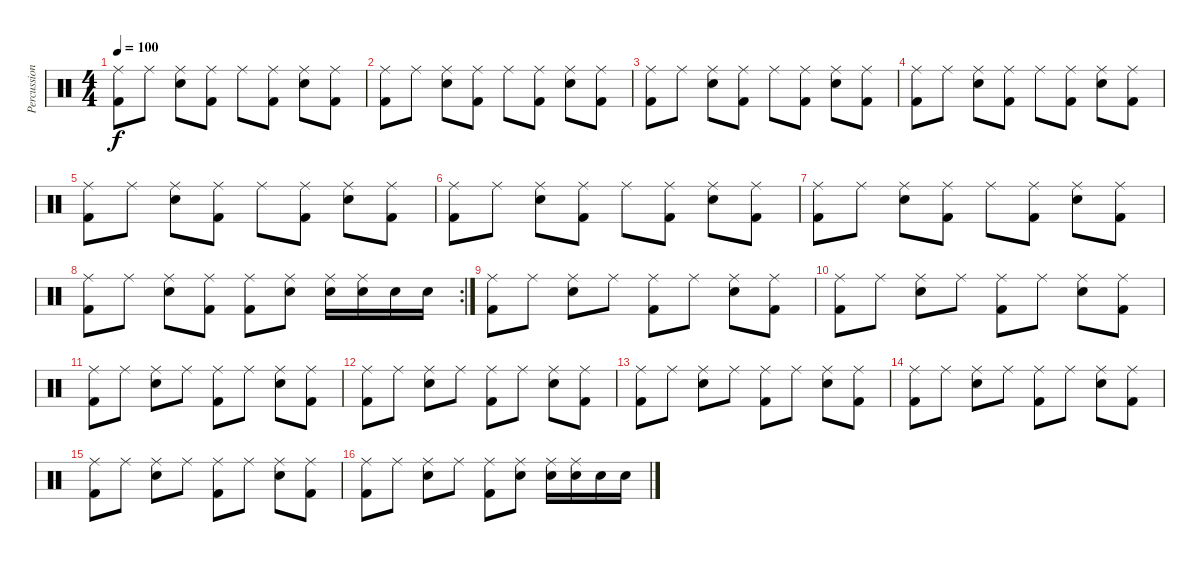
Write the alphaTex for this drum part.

\track ("Percussion" "Percussion") {instrument percussion}
\staff {score}
\articulation defaults
\ts (4 4)
\tempo 100
\clef neutral
\ks c
("Kick (hit) 2" "Ride (middle)").8{dy f} "Ride (middle)".8 ("Snare (hit) 2" "Ride (middle)").8 ("Kick (hit) 2" "Ride (middle)").8 "Ride (middle)".8 ("Kick (hit) 2" "Ride (middle)").8 ("Snare (hit) 2" "Ride (middle)").8 ("Kick (hit) 2" "Ride (middle)").8 |
("Kick (hit) 2" "Ride (middle)").8 "Ride (middle)".8 ("Snare (hit) 2" "Ride (middle)").8 ("Kick (hit) 2" "Ride (middle)").8 "Ride (middle)".8 ("Kick (hit) 2" "Ride (middle)").8 ("Snare (hit) 2" "Ride (middle)").8 ("Kick (hit) 2" "Ride (middle)").8 |
("Kick (hit) 2" "Ride (middle)").8 "Ride (middle)".8 ("Snare (hit) 2" "Ride (middle)").8 ("Kick (hit) 2" "Ride (middle)").8 "Ride (middle)".8 ("Kick (hit) 2" "Ride (middle)").8 ("Snare (hit) 2" "Ride (middle)").8 ("Kick (hit) 2" "Ride (middle)").8 |
("Kick (hit) 2" "Ride (middle)").8 "Ride (middle)".8 ("Snare (hit) 2" "Ride (middle)").8 ("Kick (hit) 2" "Ride (middle)").8 "Ride (middle)".8 ("Kick (hit) 2" "Ride (middle)").8 ("Snare (hit) 2" "Ride (middle)").8 ("Kick (hit) 2" "Ride (middle)").8 |
("Kick (hit) 2" "Ride (middle)").8 "Ride (middle)".8 ("Snare (hit) 2" "Ride (middle)").8 ("Kick (hit) 2" "Ride (middle)").8 "Ride (middle)".8 ("Kick (hit) 2" "Ride (middle)").8 ("Snare (hit) 2" "Ride (middle)").8 ("Kick (hit) 2" "Ride (middle)").8 |
("Kick (hit) 2" "Ride (middle)").8 "Ride (middle)".8 ("Snare (hit) 2" "Ride (middle)").8 ("Kick (hit) 2" "Ride (middle)").8 "Ride (middle)".8 ("Kick (hit) 2" "Ride (middle)").8 ("Snare (hit) 2" "Ride (middle)").8 ("Kick (hit) 2" "Ride (middle)").8 |
("Kick (hit) 2" "Ride (middle)").8 "Ride (middle)".8 ("Snare (hit) 2" "Ride (middle)").8 ("Kick (hit) 2" "Ride (middle)").8 "Ride (middle)".8 ("Kick (hit) 2" "Ride (middle)").8 ("Snare (hit) 2" "Ride (middle)").8 ("Kick (hit) 2" "Ride (middle)").8 |
\rc 2
("Kick (hit) 2" "Ride (middle)").8 "Ride (middle)".8 ("Snare (hit) 2" "Ride (middle)").8 ("Kick (hit) 2" "Ride (middle)").8 ("Kick (hit) 2" "Ride (middle)").8 ("Snare (hit) 2" "Ride (middle)").8 ("Snare (hit) 2" "Ride (middle)").16 ("Snare (hit) 2" "Ride (middle)").16 "Snare (hit) 2".16 "Snare (hit) 2".16 |
("Kick (hit) 2" "Ride (middle)").8 "Ride (middle)".8 ("Snare (hit) 2" "Ride (middle)").8 "Ride (middle)".8 ("Kick (hit) 2" "Ride (middle)").8 "Ride (middle)".8 ("Snare (hit) 2" "Ride (middle)").8 ("Kick (hit) 2" "Ride (middle)").8 |
("Kick (hit) 2" "Ride (middle)").8 "Ride (middle)".8 ("Snare (hit) 2" "Ride (middle)").8 "Ride (middle)".8 ("Kick (hit) 2" "Ride (middle)").8 "Ride (middle)".8 ("Snare (hit) 2" "Ride (middle)").8 ("Kick (hit) 2" "Ride (middle)").8 |
("Kick (hit) 2" "Ride (middle)").8 "Ride (middle)".8 ("Snare (hit) 2" "Ride (middle)").8 "Ride (middle)".8 ("Kick (hit) 2" "Ride (middle)").8 "Ride (middle)".8 ("Snare (hit) 2" "Ride (middle)").8 ("Kick (hit) 2" "Ride (middle)").8 |
("Kick (hit) 2" "Ride (middle)").8 "Ride (middle)".8 ("Snare (hit) 2" "Ride (middle)").8 "Ride (middle)".8 ("Kick (hit) 2" "Ride (middle)").8 "Ride (middle)".8 ("Snare (hit) 2" "Ride (middle)").8 ("Kick (hit) 2" "Ride (middle)").8 |
("Kick (hit) 2" "Ride (middle)").8 "Ride (middle)".8 ("Snare (hit) 2" "Ride (middle)").8 "Ride (middle)".8 ("Kick (hit) 2" "Ride (middle)").8 "Ride (middle)".8 ("Snare (hit) 2" "Ride (middle)").8 ("Kick (hit) 2" "Ride (middle)").8 |
("Kick (hit) 2" "Ride (middle)").8 "Ride (middle)".8 ("Snare (hit) 2" "Ride (middle)").8 "Ride (middle)".8 ("Kick (hit) 2" "Ride (middle)").8 "Ride (middle)".8 ("Snare (hit) 2" "Ride (middle)").8 ("Kick (hit) 2" "Ride (middle)").8 |
("Kick (hit) 2" "Ride (middle)").8 "Ride (middle)".8 ("Snare (hit) 2" "Ride (middle)").8 "Ride (middle)".8 ("Kick (hit) 2" "Ride (middle)").8 "Ride (middle)".8 ("Snare (hit) 2" "Ride (middle)").8 ("Kick (hit) 2" "Ride (middle)").8 |
("Kick (hit) 2" "Ride (middle)").8 "Ride (middle)".8 ("Snare (hit) 2" "Ride (middle)").8 "Ride (middle)".8 ("Kick (hit) 2" "Ride (middle)").8 ("Snare (hit) 2" "Ride (middle)").8 ("Snare (hit) 2" "Ride (middle)").16 ("Snare (hit) 2" "Ride (middle)").16 "Snare (hit) 2".16 "Snare (hit) 2".16
